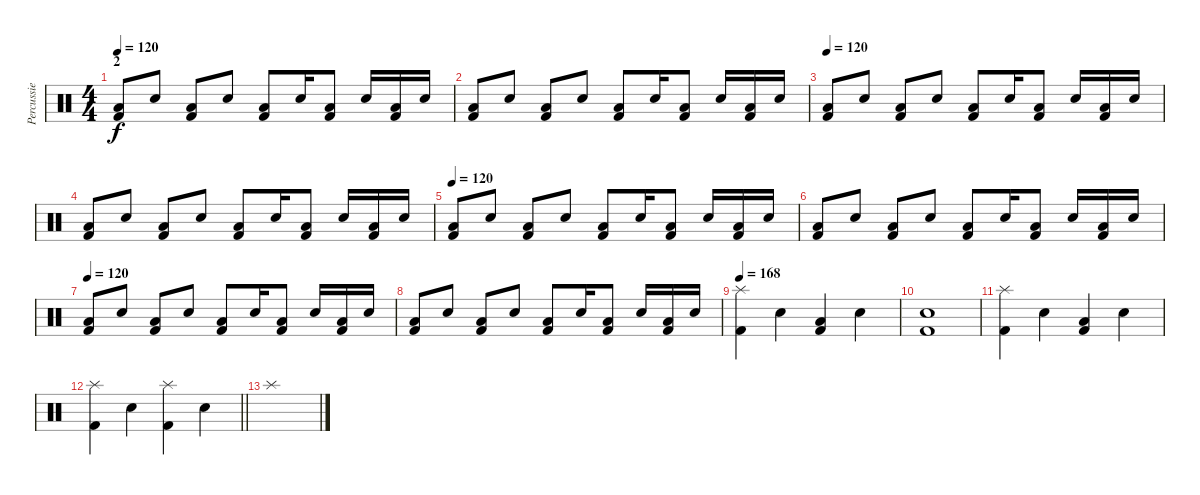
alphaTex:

\track ("Percussie" "Percussie") {instrument percussion}
\staff {score}
\articulation defaults
\ts (4 4)
\section ("" "2")
\tempo 120
\clef neutral
\ks c
("Low Floor Tom (hit)" "Kick (hit) 2").8{dy f} "Snare (hit) 2".8 ("Low Floor Tom (hit)" "Kick (hit) 2").8 "Snare (hit) 2".8 ("Low Floor Tom (hit)" "Kick (hit) 2").8 "Snare (hit) 2".16 ("Low Floor Tom (hit)" "Kick (hit) 2").8 "Snare (hit) 2".16 ("Low Floor Tom (hit)" "Kick (hit) 2").16 "Snare (hit) 2".16 |
("Low Floor Tom (hit)" "Kick (hit) 2").8 "Snare (hit) 2".8 ("Low Floor Tom (hit)" "Kick (hit) 2").8 "Snare (hit) 2".8 ("Low Floor Tom (hit)" "Kick (hit) 2").8 "Snare (hit) 2".16 ("Low Floor Tom (hit)" "Kick (hit) 2").8 "Snare (hit) 2".16 ("Low Floor Tom (hit)" "Kick (hit) 2").16 "Snare (hit) 2".16 |
\tempo 120
("Low Floor Tom (hit)" "Kick (hit) 2").8 "Snare (hit) 2".8 ("Low Floor Tom (hit)" "Kick (hit) 2").8 "Snare (hit) 2".8 ("Low Floor Tom (hit)" "Kick (hit) 2").8 "Snare (hit) 2".16 ("Low Floor Tom (hit)" "Kick (hit) 2").8 "Snare (hit) 2".16 ("Low Floor Tom (hit)" "Kick (hit) 2").16 "Snare (hit) 2".16 |
("Low Floor Tom (hit)" "Kick (hit) 2").8 "Snare (hit) 2".8 ("Low Floor Tom (hit)" "Kick (hit) 2").8 "Snare (hit) 2".8 ("Low Floor Tom (hit)" "Kick (hit) 2").8 "Snare (hit) 2".16 ("Low Floor Tom (hit)" "Kick (hit) 2").8 "Snare (hit) 2".16 ("Low Floor Tom (hit)" "Kick (hit) 2").16 "Snare (hit) 2".16 |
\tempo 120
("Low Floor Tom (hit)" "Kick (hit) 2").8 "Snare (hit) 2".8 ("Low Floor Tom (hit)" "Kick (hit) 2").8 "Snare (hit) 2".8 ("Low Floor Tom (hit)" "Kick (hit) 2").8 "Snare (hit) 2".16 ("Low Floor Tom (hit)" "Kick (hit) 2").8 "Snare (hit) 2".16 ("Low Floor Tom (hit)" "Kick (hit) 2").16 "Snare (hit) 2".16 |
("Low Floor Tom (hit)" "Kick (hit) 2").8 "Snare (hit) 2".8 ("Low Floor Tom (hit)" "Kick (hit) 2").8 "Snare (hit) 2".8 ("Low Floor Tom (hit)" "Kick (hit) 2").8 "Snare (hit) 2".16 ("Low Floor Tom (hit)" "Kick (hit) 2").8 "Snare (hit) 2".16 ("Low Floor Tom (hit)" "Kick (hit) 2").16 "Snare (hit) 2".16 |
\tempo 120
("Low Floor Tom (hit)" "Kick (hit) 2").8 "Snare (hit) 2".8 ("Low Floor Tom (hit)" "Kick (hit) 2").8 "Snare (hit) 2".8 ("Low Floor Tom (hit)" "Kick (hit) 2").8 "Snare (hit) 2".16 ("Low Floor Tom (hit)" "Kick (hit) 2").8 "Snare (hit) 2".16 ("Low Floor Tom (hit)" "Kick (hit) 2").16 "Snare (hit) 2".16 |
("Low Floor Tom (hit)" "Kick (hit) 2").8 "Snare (hit) 2".8 ("Low Floor Tom (hit)" "Kick (hit) 2").8 "Snare (hit) 2".8 ("Low Floor Tom (hit)" "Kick (hit) 2").8 "Snare (hit) 2".16 ("Low Floor Tom (hit)" "Kick (hit) 2").8 "Snare (hit) 2".16 ("Low Floor Tom (hit)" "Kick (hit) 2").16 "Snare (hit) 2".16 |
\tempo 168
("Splash (hit)" "Kick (hit) 2").4 "Snare (hit) 2".4 ("Low Floor Tom (hit)" "Kick (hit) 2").4 "Snare (hit) 2".4 |
("Snare (hit) 2" "Kick (hit) 2").1 |
("Splash (hit)" "Kick (hit) 2").4 "Snare (hit) 2".4 ("Low Floor Tom (hit)" "Kick (hit) 2").4 "Snare (hit) 2".4 |
\barLineRight lightlight
("Splash (hit)" "Kick (hit) 2").4 "Snare (hit) 2".4 ("Splash (hit)" "Kick (hit) 2").4 "Snare (hit) 2".4 |
"Splash (hit)".1
